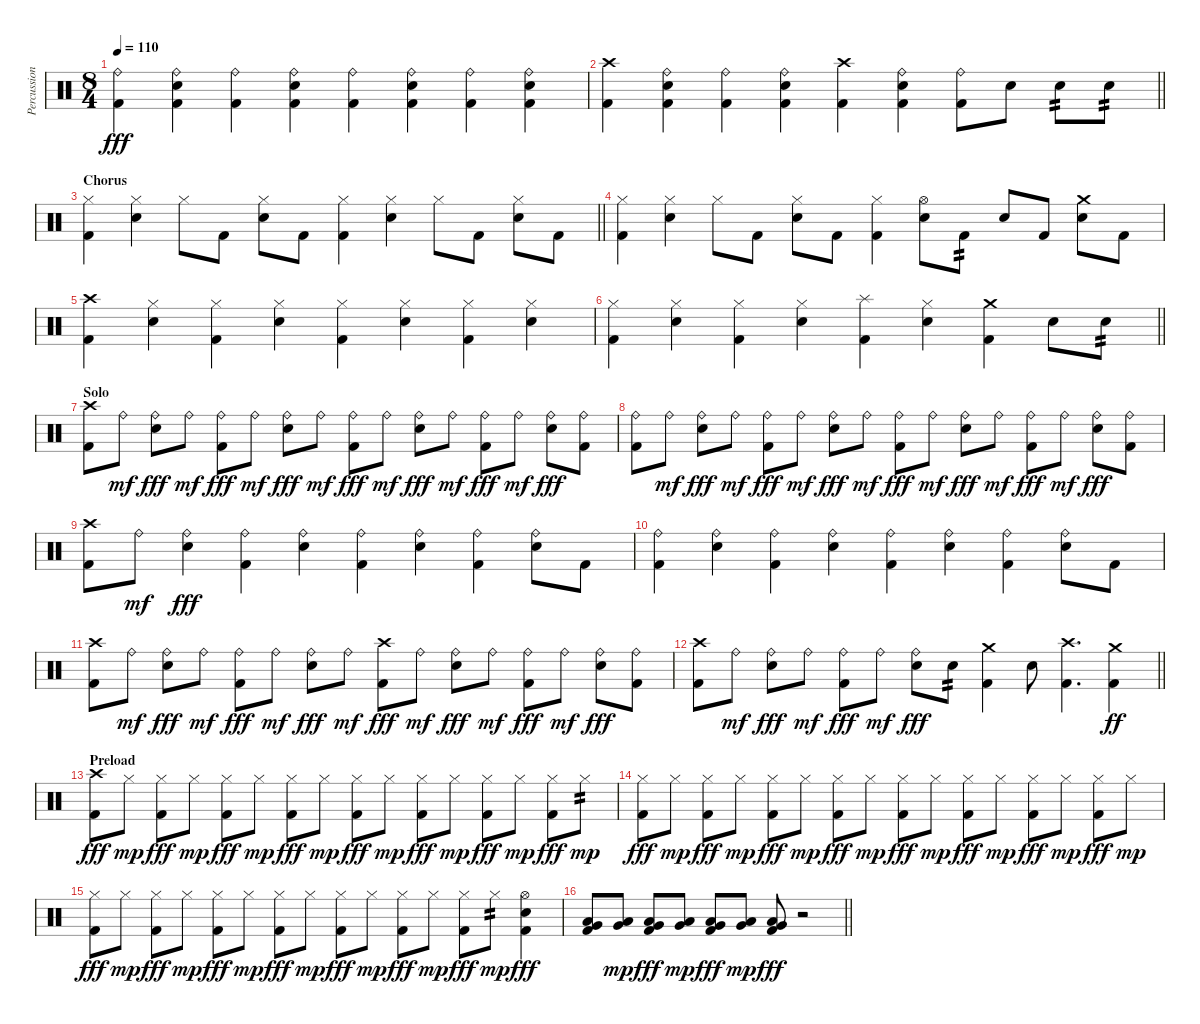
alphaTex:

\track ("Percussion" "Percussion") {instrument percussion}
\staff {score}
\articulation defaults
\ts (8 4)
\tempo 110
\clef neutral
\ks c
("Ride (bell)" "Kick (hit) 2").4{dy fff} ("Ride (bell)" "Electric Snare (hit)" "Kick (hit) 2").4 ("Ride (bell)" "Kick (hit) 2").4 ("Ride (bell)" "Electric Snare (hit)" "Kick (hit) 2").4 ("Ride (bell)" "Kick (hit) 2").4 ("Ride (bell)" "Electric Snare (hit)" "Kick (hit) 2").4 ("Ride (bell)" "Kick (hit) 2").4 ("Ride (bell)" "Electric Snare (hit)" "Kick (hit) 2").4 |
\barLineRight lightlight
("Crash high (hit)" "Kick (hit) 2").4 ("Ride (bell)" "Electric Snare (hit)" "Kick (hit) 2").4 ("Ride (bell)" "Kick (hit) 2").4 ("Ride (bell)" "Electric Snare (hit)" "Kick (hit) 2").4 ("Crash high (hit)" "Kick (hit) 2").4 ("Ride (bell)" "Electric Snare (hit)" "Kick (hit) 2").4 ("Ride (bell)" "Kick (hit) 2").8 "Electric Snare (hit)".8 "Electric Snare (hit)".8{tp 2} "Electric Snare (hit)".8{tp 2} |
\section ("" "Chorus")
\barLineRight lightlight
("Hi-Hat (closed)" "Kick (hit) 2").4 ("Hi-Hat (closed)" "Electric Snare (hit)").4 "Hi-Hat (closed)".8 "Kick (hit) 2".8 ("Hi-Hat (closed)" "Electric Snare (hit)").8 "Kick (hit) 2".8 ("Hi-Hat (closed)" "Kick (hit) 2").4 ("Hi-Hat (closed)" "Electric Snare (hit)").4 "Hi-Hat (closed)".8 "Kick (hit) 2".8 ("Hi-Hat (closed)" "Electric Snare (hit)").8 "Kick (hit) 2".8 |
("Hi-Hat (closed)" "Kick (hit) 2").4 ("Hi-Hat (closed)" "Electric Snare (hit)").4 "Hi-Hat (closed)".8 "Kick (hit) 2".8 ("Hi-Hat (closed)" "Electric Snare (hit)").8 "Kick (hit) 2".8 ("Hi-Hat (closed)" "Kick (hit) 2").4 ("Hi-Hat (open)" "Electric Snare (hit)").8 "Kick (hit) 2".8{tp 2} "Electric Snare (hit)".8 "Kick (hit) 2".8 ("Crash medium (hit)" "Electric Snare (hit)").8 "Kick (hit) 2".8 |
("Crash high (hit)" "Kick (hit) 2").4 ("Hi-Hat (closed)" "Electric Snare (hit)").4 ("Hi-Hat (closed)" "Kick (hit) 2").4 ("Hi-Hat (closed)" "Electric Snare (hit)").4 ("Hi-Hat (closed)" "Kick (hit) 2").4 ("Hi-Hat (closed)" "Electric Snare (hit)").4 ("Hi-Hat (closed)" "Kick (hit) 2").4 ("Hi-Hat (closed)" "Electric Snare (hit)").4 |
\barLineRight lightlight
("Hi-Hat (closed)" "Kick (hit) 2").4 ("Hi-Hat (closed)" "Electric Snare (hit)").4 ("Hi-Hat (closed)" "Kick (hit) 2").4 ("Hi-Hat (closed)" "Electric Snare (hit)").4 ("Splash (hit)" "Kick (hit) 2").4 ("Hi-Hat (closed)" "Electric Snare (hit)").4 ("Crash medium (hit)" "Kick (hit) 2").4 "Electric Snare (hit)".8 "Electric Snare (hit)".8{tp 2} |
\section ("" "Solo")
("Crash high (hit)" "Kick (hit) 2").8 "Ride (bell)".8{dy mf} ("Ride (bell)" "Electric Snare (hit)").8{dy fff} "Ride (bell)".8{dy mf} ("Ride (bell)" "Kick (hit) 2").8{dy fff} "Ride (bell)".8{dy mf} ("Ride (bell)" "Electric Snare (hit)").8{dy fff} "Ride (bell)".8{dy mf} ("Ride (bell)" "Kick (hit) 2").8{dy fff} "Ride (bell)".8{dy mf} ("Ride (bell)" "Electric Snare (hit)").8{dy fff} "Ride (bell)".8{dy mf} ("Ride (bell)" "Kick (hit) 2").8{dy fff} "Ride (bell)".8{dy mf} ("Ride (bell)" "Electric Snare (hit)").8{dy fff} ("Ride (bell)" "Kick (hit) 2").8 |
("Ride (bell)" "Kick (hit) 2").8 "Ride (bell)".8{dy mf} ("Ride (bell)" "Electric Snare (hit)").8{dy fff} "Ride (bell)".8{dy mf} ("Ride (bell)" "Kick (hit) 2").8{dy fff} "Ride (bell)".8{dy mf} ("Ride (bell)" "Electric Snare (hit)").8{dy fff} "Ride (bell)".8{dy mf} ("Ride (bell)" "Kick (hit) 2").8{dy fff} "Ride (bell)".8{dy mf} ("Ride (bell)" "Electric Snare (hit)").8{dy fff} "Ride (bell)".8{dy mf} ("Ride (bell)" "Kick (hit) 2").8{dy fff} "Ride (bell)".8{dy mf} ("Ride (bell)" "Electric Snare (hit)").8{dy fff} ("Ride (bell)" "Kick (hit) 2").8 |
("Crash high (hit)" "Kick (hit) 2").8 "Ride (bell)".8{dy mf} ("Ride (bell)" "Electric Snare (hit)").4{dy fff} ("Ride (bell)" "Kick (hit) 2").4 ("Ride (bell)" "Electric Snare (hit)").4 ("Ride (bell)" "Kick (hit) 2").4 ("Ride (bell)" "Electric Snare (hit)").4 ("Ride (bell)" "Kick (hit) 2").4 ("Ride (bell)" "Electric Snare (hit)").8 "Kick (hit) 2".8 |
("Ride (bell)" "Kick (hit) 2").4 ("Ride (bell)" "Electric Snare (hit)").4 ("Ride (bell)" "Kick (hit) 2").4 ("Ride (bell)" "Electric Snare (hit)").4 ("Ride (bell)" "Kick (hit) 2").4 ("Ride (bell)" "Electric Snare (hit)").4 ("Ride (bell)" "Kick (hit) 2").4 ("Ride (bell)" "Electric Snare (hit)").8 "Kick (hit) 2".8 |
("Crash high (hit)" "Kick (hit) 2").8 "Ride (bell)".8{dy mf} ("Ride (bell)" "Electric Snare (hit)").8{dy fff} "Ride (bell)".8{dy mf} ("Ride (bell)" "Kick (hit) 2").8{dy fff} "Ride (bell)".8{dy mf} ("Ride (bell)" "Electric Snare (hit)").8{dy fff} "Ride (bell)".8{dy mf} ("Crash high (hit)" "Kick (hit) 2").8{dy fff} "Ride (bell)".8{dy mf} ("Ride (bell)" "Electric Snare (hit)").8{dy fff} "Ride (bell)".8{dy mf} ("Ride (bell)" "Kick (hit) 2").8{dy fff} "Ride (bell)".8{dy mf} ("Ride (bell)" "Electric Snare (hit)").8{dy fff} ("Ride (bell)" "Kick (hit) 2").8 |
\barLineRight lightlight
("Crash high (hit)" "Kick (hit) 2").8 "Ride (bell)".8{dy mf} ("Ride (bell)" "Electric Snare (hit)").8{dy fff} "Ride (bell)".8{dy mf} ("Ride (bell)" "Kick (hit) 2").8{dy fff} "Ride (bell)".8{dy mf} ("Ride (bell)" "Electric Snare (hit)").8{dy fff} "Electric Snare (hit)".8{tp 2} ("Crash medium (hit)" "Kick (hit) 2").4 "Electric Snare (hit)".8 ("Crash high (hit)" "Kick (hit) 2").4{d} ("Crash medium (hit)" "Kick (hit) 2").4{dy ff} |
\section ("" "Preload")
("Crash high (hit)" "Kick (hit) 2").8{dy fff} "Hi-Hat (closed)".8{dy mp} ("Hi-Hat (closed)" "Kick (hit) 2").8{dy fff} "Hi-Hat (closed)".8{dy mp} ("Hi-Hat (closed)" "Kick (hit) 2").8{dy fff} "Hi-Hat (closed)".8{dy mp} ("Hi-Hat (closed)" "Kick (hit) 2").8{dy fff} "Hi-Hat (closed)".8{dy mp} ("Hi-Hat (closed)" "Kick (hit) 2").8{dy fff} "Hi-Hat (closed)".8{dy mp} ("Hi-Hat (closed)" "Kick (hit) 2").8{dy fff} "Hi-Hat (closed)".8{dy mp} ("Hi-Hat (closed)" "Kick (hit) 2").8{dy fff} "Hi-Hat (closed)".8{dy mp} ("Hi-Hat (closed)" "Kick (hit) 2").8{dy fff} "Hi-Hat (closed)".8{tp 2 dy mp} |
("Hi-Hat (closed)" "Kick (hit) 2").8{dy fff} "Hi-Hat (closed)".8{dy mp} ("Hi-Hat (closed)" "Kick (hit) 2").8{dy fff} "Hi-Hat (closed)".8{dy mp} ("Hi-Hat (closed)" "Kick (hit) 2").8{dy fff} "Hi-Hat (closed)".8{dy mp} ("Hi-Hat (closed)" "Kick (hit) 2").8{dy fff} "Hi-Hat (closed)".8{dy mp} ("Hi-Hat (closed)" "Kick (hit) 2").8{dy fff} "Hi-Hat (closed)".8{dy mp} ("Hi-Hat (closed)" "Kick (hit) 2").8{dy fff} "Hi-Hat (closed)".8{dy mp} ("Hi-Hat (closed)" "Kick (hit) 2").8{dy fff} "Hi-Hat (closed)".8{dy mp} ("Hi-Hat (closed)" "Kick (hit) 2").8{dy fff} "Hi-Hat (closed)".8{dy mp} |
("Hi-Hat (closed)" "Kick (hit) 2").8{dy fff} "Hi-Hat (closed)".8{dy mp} ("Hi-Hat (closed)" "Kick (hit) 2").8{dy fff} "Hi-Hat (closed)".8{dy mp} ("Hi-Hat (closed)" "Kick (hit) 2").8{dy fff} "Hi-Hat (closed)".8{dy mp} ("Hi-Hat (closed)" "Kick (hit) 2").8{dy fff} "Hi-Hat (closed)".8{dy mp} ("Hi-Hat (closed)" "Kick (hit) 2").8{dy fff} "Hi-Hat (closed)".8{dy mp} ("Hi-Hat (closed)" "Kick (hit) 2").8{dy fff} "Hi-Hat (closed)".8{dy mp} ("Hi-Hat (closed)" "Kick (hit) 2").8{dy fff} "Hi-Hat (closed)".8{tp 2 dy mp} ("Hi-Hat (open)" "Electric Snare (hit)" "Kick (hit) 2").4{dy fff} |
\barLineRight lightlight
("Low Tom (hit)" "Very Low Tom (hit)" "Kick (hit) 2").8 ("Low Tom (hit)" "Very Low Tom (hit)").8{dy mp} ("Low Tom (hit)" "Very Low Tom (hit)" "Kick (hit) 2").8{dy fff} ("Low Tom (hit)" "Very Low Tom (hit)").8{dy mp} ("Low Tom (hit)" "Very Low Tom (hit)" "Kick (hit) 2").8{dy fff} ("Low Tom (hit)" "Very Low Tom (hit)").8{dy mp} ("Low Tom (hit)" "Very Low Tom (hit)" "Kick (hit) 2").8{dy fff} r.2
